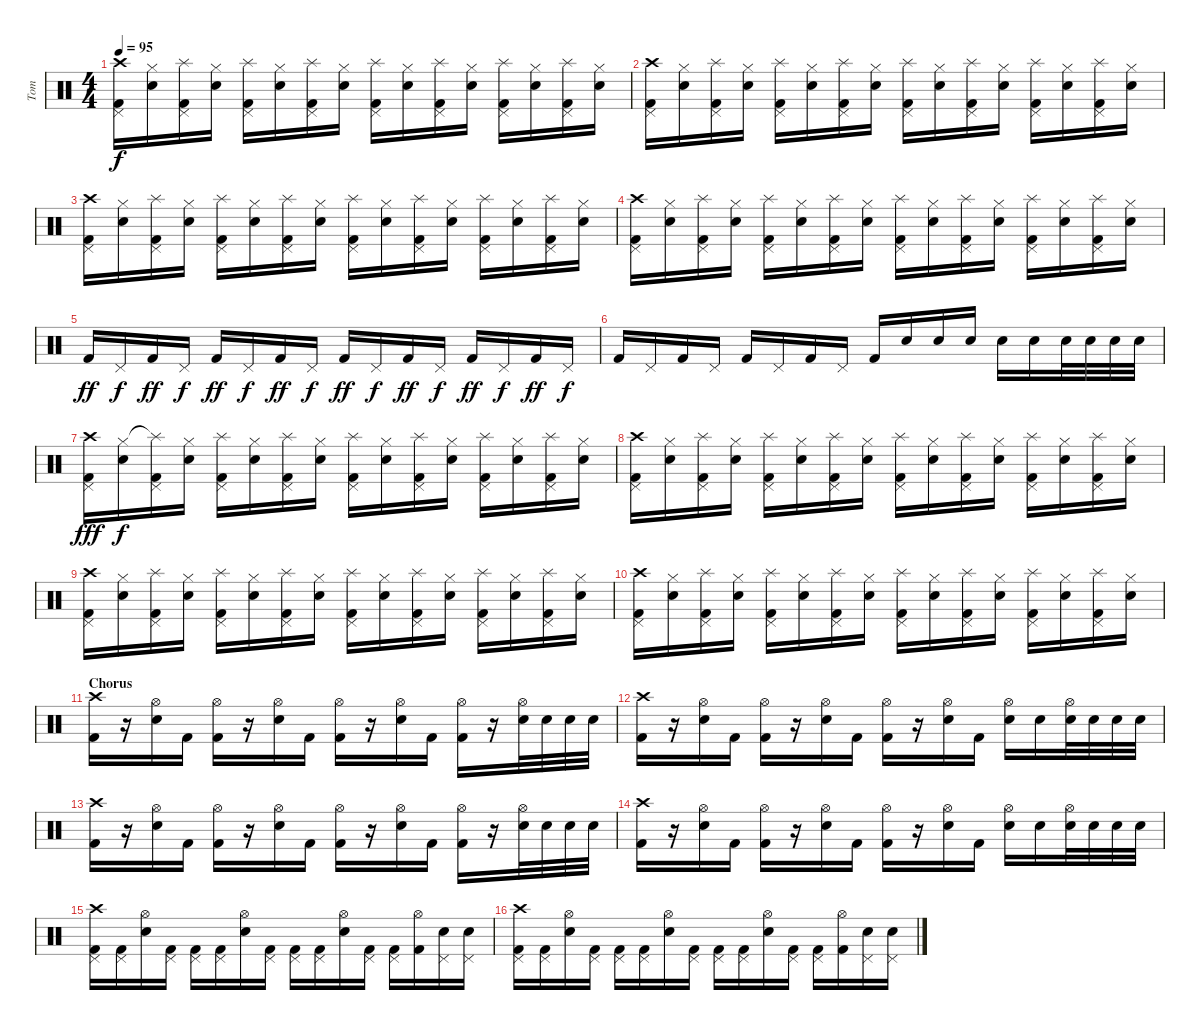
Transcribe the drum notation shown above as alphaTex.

\track ("Tom" "Tom") {instrument percussion}
\staff {score}
\articulation defaults
\ts (4 4)
\tempo 95
\clef neutral
\ks c
("Crash high (hit)" "Pedal Hi-Hat (hit)" "Kick (hit) 2").16{dy f} ("Hi-Hat (closed)" "Electric Snare (hit)").16 ("Splash (hit)" "Pedal Hi-Hat (hit)" "Kick (hit) 2").16 ("Hi-Hat (closed)" "Electric Snare (hit)").16 ("Splash (hit)" "Pedal Hi-Hat (hit)" "Kick (hit) 2").16 ("Hi-Hat (closed)" "Electric Snare (hit)").16 ("Splash (hit)" "Pedal Hi-Hat (hit)" "Kick (hit) 2").16 ("Hi-Hat (closed)" "Electric Snare (hit)").16 ("Splash (hit)" "Pedal Hi-Hat (hit)" "Kick (hit) 2").16 ("Hi-Hat (closed)" "Electric Snare (hit)").16 ("Splash (hit)" "Pedal Hi-Hat (hit)" "Kick (hit) 2").16 ("Hi-Hat (closed)" "Electric Snare (hit)").16 ("Splash (hit)" "Pedal Hi-Hat (hit)" "Kick (hit) 2").16 ("Hi-Hat (closed)" "Electric Snare (hit)").16 ("Splash (hit)" "Pedal Hi-Hat (hit)" "Kick (hit) 2").16 ("Hi-Hat (closed)" "Electric Snare (hit)").16 |
("Crash high (hit)" "Pedal Hi-Hat (hit)" "Kick (hit) 2").16 ("Hi-Hat (closed)" "Electric Snare (hit)").16 ("Splash (hit)" "Pedal Hi-Hat (hit)" "Kick (hit) 2").16 ("Hi-Hat (closed)" "Electric Snare (hit)").16 ("Splash (hit)" "Pedal Hi-Hat (hit)" "Kick (hit) 2").16 ("Hi-Hat (closed)" "Electric Snare (hit)").16 ("Splash (hit)" "Pedal Hi-Hat (hit)" "Kick (hit) 2").16 ("Hi-Hat (closed)" "Electric Snare (hit)").16 ("Splash (hit)" "Pedal Hi-Hat (hit)" "Kick (hit) 2").16 ("Hi-Hat (closed)" "Electric Snare (hit)").16 ("Splash (hit)" "Pedal Hi-Hat (hit)" "Kick (hit) 2").16 ("Hi-Hat (closed)" "Electric Snare (hit)").16 ("Splash (hit)" "Pedal Hi-Hat (hit)" "Kick (hit) 2").16 ("Hi-Hat (closed)" "Electric Snare (hit)").16 ("Splash (hit)" "Pedal Hi-Hat (hit)" "Kick (hit) 2").16 ("Hi-Hat (closed)" "Electric Snare (hit)").16 |
("Crash high (hit)" "Pedal Hi-Hat (hit)" "Kick (hit) 2").16 ("Hi-Hat (closed)" "Electric Snare (hit)").16 ("Splash (hit)" "Pedal Hi-Hat (hit)" "Kick (hit) 2").16 ("Hi-Hat (closed)" "Electric Snare (hit)").16 ("Splash (hit)" "Pedal Hi-Hat (hit)" "Kick (hit) 2").16 ("Hi-Hat (closed)" "Electric Snare (hit)").16 ("Splash (hit)" "Pedal Hi-Hat (hit)" "Kick (hit) 2").16 ("Hi-Hat (closed)" "Electric Snare (hit)").16 ("Splash (hit)" "Pedal Hi-Hat (hit)" "Kick (hit) 2").16 ("Hi-Hat (closed)" "Electric Snare (hit)").16 ("Splash (hit)" "Pedal Hi-Hat (hit)" "Kick (hit) 2").16 ("Hi-Hat (closed)" "Electric Snare (hit)").16 ("Splash (hit)" "Pedal Hi-Hat (hit)" "Kick (hit) 2").16 ("Hi-Hat (closed)" "Electric Snare (hit)").16 ("Splash (hit)" "Pedal Hi-Hat (hit)" "Kick (hit) 2").16 ("Hi-Hat (closed)" "Electric Snare (hit)").16 |
("Crash high (hit)" "Pedal Hi-Hat (hit)" "Kick (hit) 2").16 ("Hi-Hat (closed)" "Electric Snare (hit)").16 ("Splash (hit)" "Pedal Hi-Hat (hit)" "Kick (hit) 2").16 ("Hi-Hat (closed)" "Electric Snare (hit)").16 ("Splash (hit)" "Pedal Hi-Hat (hit)" "Kick (hit) 2").16 ("Hi-Hat (closed)" "Electric Snare (hit)").16 ("Splash (hit)" "Pedal Hi-Hat (hit)" "Kick (hit) 2").16 ("Hi-Hat (closed)" "Electric Snare (hit)").16 ("Splash (hit)" "Pedal Hi-Hat (hit)" "Kick (hit) 2").16 ("Hi-Hat (closed)" "Electric Snare (hit)").16 ("Splash (hit)" "Pedal Hi-Hat (hit)" "Kick (hit) 2").16 ("Hi-Hat (closed)" "Electric Snare (hit)").16 ("Splash (hit)" "Pedal Hi-Hat (hit)" "Kick (hit) 2").16 ("Hi-Hat (closed)" "Electric Snare (hit)").16 ("Splash (hit)" "Pedal Hi-Hat (hit)" "Kick (hit) 2").16 ("Hi-Hat (closed)" "Electric Snare (hit)").16 |
"Kick (hit) 2".16{dy ff} "Pedal Hi-Hat (hit)".16{dy f} "Kick (hit) 2".16{dy ff} "Pedal Hi-Hat (hit)".16{dy f} "Kick (hit) 2".16{dy ff} "Pedal Hi-Hat (hit)".16{dy f} "Kick (hit) 2".16{dy ff} "Pedal Hi-Hat (hit)".16{dy f} "Kick (hit) 2".16{dy ff} "Pedal Hi-Hat (hit)".16{dy f} "Kick (hit) 2".16{dy ff} "Pedal Hi-Hat (hit)".16{dy f} "Kick (hit) 2".16{dy ff} "Pedal Hi-Hat (hit)".16{dy f} "Kick (hit) 2".16{dy ff} "Pedal Hi-Hat (hit)".16{dy f} |
"Kick (hit) 2".16 "Pedal Hi-Hat (hit)".16 "Kick (hit) 2".16 "Pedal Hi-Hat (hit)".16 "Kick (hit) 2".16 "Pedal Hi-Hat (hit)".16 "Kick (hit) 2".16 "Pedal Hi-Hat (hit)".16 "Kick (hit) 2".16 "Electric Snare (hit)".16 "Electric Snare (hit)".16 "Electric Snare (hit)".16 "Electric Snare (hit)".16 "Electric Snare (hit)".16 "Electric Snare (hit)".32 "Electric Snare (hit)".32 "Electric Snare (hit)".32 "Electric Snare (hit)".32 |
("Crash high (hit)" "Pedal Hi-Hat (hit)" "Kick (hit) 2").16{dy fff} ("Hi-Hat (closed)" "Electric Snare (hit)").16{dy f} ("Splash (hit)"{t} "Pedal Hi-Hat (hit)" "Kick (hit) 2").16 ("Hi-Hat (closed)" "Electric Snare (hit)").16 ("Splash (hit)" "Pedal Hi-Hat (hit)" "Kick (hit) 2").16 ("Hi-Hat (closed)" "Electric Snare (hit)").16 ("Splash (hit)" "Pedal Hi-Hat (hit)" "Kick (hit) 2").16 ("Hi-Hat (closed)" "Electric Snare (hit)").16 ("Splash (hit)" "Pedal Hi-Hat (hit)" "Kick (hit) 2").16 ("Hi-Hat (closed)" "Electric Snare (hit)").16 ("Splash (hit)" "Pedal Hi-Hat (hit)" "Kick (hit) 2").16 ("Hi-Hat (closed)" "Electric Snare (hit)").16 ("Splash (hit)" "Pedal Hi-Hat (hit)" "Kick (hit) 2").16 ("Hi-Hat (closed)" "Electric Snare (hit)").16 ("Splash (hit)" "Pedal Hi-Hat (hit)" "Kick (hit) 2").16 ("Hi-Hat (closed)" "Electric Snare (hit)").16 |
("Crash high (hit)" "Pedal Hi-Hat (hit)" "Kick (hit) 2").16 ("Hi-Hat (closed)" "Electric Snare (hit)").16 ("Splash (hit)" "Pedal Hi-Hat (hit)" "Kick (hit) 2").16 ("Hi-Hat (closed)" "Electric Snare (hit)").16 ("Splash (hit)" "Pedal Hi-Hat (hit)" "Kick (hit) 2").16 ("Hi-Hat (closed)" "Electric Snare (hit)").16 ("Splash (hit)" "Pedal Hi-Hat (hit)" "Kick (hit) 2").16 ("Hi-Hat (closed)" "Electric Snare (hit)").16 ("Splash (hit)" "Pedal Hi-Hat (hit)" "Kick (hit) 2").16 ("Hi-Hat (closed)" "Electric Snare (hit)").16 ("Splash (hit)" "Pedal Hi-Hat (hit)" "Kick (hit) 2").16 ("Hi-Hat (closed)" "Electric Snare (hit)").16 ("Splash (hit)" "Pedal Hi-Hat (hit)" "Kick (hit) 2").16 ("Hi-Hat (closed)" "Electric Snare (hit)").16 ("Splash (hit)" "Pedal Hi-Hat (hit)" "Kick (hit) 2").16 ("Hi-Hat (closed)" "Electric Snare (hit)").16 |
("Crash high (hit)" "Pedal Hi-Hat (hit)" "Kick (hit) 2").16 ("Hi-Hat (closed)" "Electric Snare (hit)").16 ("Splash (hit)" "Pedal Hi-Hat (hit)" "Kick (hit) 2").16 ("Hi-Hat (closed)" "Electric Snare (hit)").16 ("Splash (hit)" "Pedal Hi-Hat (hit)" "Kick (hit) 2").16 ("Hi-Hat (closed)" "Electric Snare (hit)").16 ("Splash (hit)" "Pedal Hi-Hat (hit)" "Kick (hit) 2").16 ("Hi-Hat (closed)" "Electric Snare (hit)").16 ("Splash (hit)" "Pedal Hi-Hat (hit)" "Kick (hit) 2").16 ("Hi-Hat (closed)" "Electric Snare (hit)").16 ("Splash (hit)" "Pedal Hi-Hat (hit)" "Kick (hit) 2").16 ("Hi-Hat (closed)" "Electric Snare (hit)").16 ("Splash (hit)" "Pedal Hi-Hat (hit)" "Kick (hit) 2").16 ("Hi-Hat (closed)" "Electric Snare (hit)").16 ("Splash (hit)" "Pedal Hi-Hat (hit)" "Kick (hit) 2").16 ("Hi-Hat (closed)" "Electric Snare (hit)").16 |
("Crash high (hit)" "Pedal Hi-Hat (hit)" "Kick (hit) 2").16 ("Hi-Hat (closed)" "Electric Snare (hit)").16 ("Splash (hit)" "Pedal Hi-Hat (hit)" "Kick (hit) 2").16 ("Hi-Hat (closed)" "Electric Snare (hit)").16 ("Splash (hit)" "Pedal Hi-Hat (hit)" "Kick (hit) 2").16 ("Hi-Hat (closed)" "Electric Snare (hit)").16 ("Splash (hit)" "Pedal Hi-Hat (hit)" "Kick (hit) 2").16 ("Hi-Hat (closed)" "Electric Snare (hit)").16 ("Splash (hit)" "Pedal Hi-Hat (hit)" "Kick (hit) 2").16 ("Hi-Hat (closed)" "Electric Snare (hit)").16 ("Splash (hit)" "Pedal Hi-Hat (hit)" "Kick (hit) 2").16 ("Hi-Hat (closed)" "Electric Snare (hit)").16 ("Splash (hit)" "Pedal Hi-Hat (hit)" "Kick (hit) 2").16 ("Hi-Hat (closed)" "Electric Snare (hit)").16 ("Splash (hit)" "Pedal Hi-Hat (hit)" "Kick (hit) 2").16 ("Hi-Hat (closed)" "Electric Snare (hit)").16 |
\section ("" "Chorus")
("Crash high (hit)" "Kick (hit) 2").16 r.16 ("Hi-Hat (open)" "Electric Snare (hit)").16 "Kick (hit) 2".16 ("Hi-Hat (open)" "Kick (hit) 2").16 r.16 ("Hi-Hat (open)" "Electric Snare (hit)").16 "Kick (hit) 2".16 ("Hi-Hat (open)" "Kick (hit) 2").16 r.16 ("Hi-Hat (open)" "Electric Snare (hit)").16 "Kick (hit) 2".16 ("Hi-Hat (open)" "Kick (hit) 2").16 r.16 ("Hi-Hat (open)" "Electric Snare (hit)").32 "Electric Snare (hit)".32 "Electric Snare (hit)".32 "Electric Snare (hit)".32 |
("Crash high (hit)" "Kick (hit) 2").16 r.16 ("Hi-Hat (open)" "Electric Snare (hit)").16 "Kick (hit) 2".16 ("Hi-Hat (open)" "Kick (hit) 2").16 r.16 ("Hi-Hat (open)" "Electric Snare (hit)").16 "Kick (hit) 2".16 ("Hi-Hat (open)" "Kick (hit) 2").16 r.16 ("Hi-Hat (open)" "Electric Snare (hit)").16 "Kick (hit) 2".16 ("Hi-Hat (open)" "Electric Snare (hit)").16 "Electric Snare (hit)".16 ("Hi-Hat (open)" "Electric Snare (hit)").32 "Electric Snare (hit)".32 "Electric Snare (hit)".32 "Electric Snare (hit)".32 |
("Crash high (hit)" "Kick (hit) 2").16 r.16 ("Hi-Hat (open)" "Electric Snare (hit)").16 "Kick (hit) 2".16 ("Hi-Hat (open)" "Kick (hit) 2").16 r.16 ("Hi-Hat (open)" "Electric Snare (hit)").16 "Kick (hit) 2".16 ("Hi-Hat (open)" "Kick (hit) 2").16 r.16 ("Hi-Hat (open)" "Electric Snare (hit)").16 "Kick (hit) 2".16 ("Hi-Hat (open)" "Kick (hit) 2").16 r.16 ("Hi-Hat (open)" "Electric Snare (hit)").32 "Electric Snare (hit)".32 "Electric Snare (hit)".32 "Electric Snare (hit)".32 |
("Crash high (hit)" "Kick (hit) 2").16 r.16 ("Hi-Hat (open)" "Electric Snare (hit)").16 "Kick (hit) 2".16 ("Hi-Hat (open)" "Kick (hit) 2").16 r.16 ("Hi-Hat (open)" "Electric Snare (hit)").16 "Kick (hit) 2".16 ("Hi-Hat (open)" "Kick (hit) 2").16 r.16 ("Hi-Hat (open)" "Electric Snare (hit)").16 "Kick (hit) 2".16 ("Hi-Hat (open)" "Electric Snare (hit)").16 "Electric Snare (hit)".16 ("Hi-Hat (open)" "Electric Snare (hit)").32 "Electric Snare (hit)".32 "Electric Snare (hit)".32 "Electric Snare (hit)".32 |
("Crash high (hit)" "Pedal Hi-Hat (hit)" "Kick (hit) 2").16 ("Pedal Hi-Hat (hit)" "Kick (hit) 2").16 ("Hi-Hat (open)" "Electric Snare (hit)").16 ("Pedal Hi-Hat (hit)" "Kick (hit) 2").16 ("Pedal Hi-Hat (hit)" "Kick (hit) 2").16 ("Pedal Hi-Hat (hit)" "Kick (hit) 2").16 ("Hi-Hat (open)" "Electric Snare (hit)").16 ("Pedal Hi-Hat (hit)" "Kick (hit) 2").16 ("Pedal Hi-Hat (hit)" "Kick (hit) 2").16 ("Pedal Hi-Hat (hit)" "Kick (hit) 2").16 ("Hi-Hat (open)" "Electric Snare (hit)").16 ("Pedal Hi-Hat (hit)" "Kick (hit) 2").16 ("Pedal Hi-Hat (hit)" "Kick (hit) 2").16 ("Hi-Hat (open)" "Kick (hit) 2").16 ("Pedal Hi-Hat (hit)" "Electric Snare (hit)").16 ("Pedal Hi-Hat (hit)" "Electric Snare (hit)").16 |
("Crash high (hit)" "Pedal Hi-Hat (hit)" "Kick (hit) 2").16 ("Pedal Hi-Hat (hit)" "Kick (hit) 2").16 ("Hi-Hat (open)" "Electric Snare (hit)").16 ("Pedal Hi-Hat (hit)" "Kick (hit) 2").16 ("Pedal Hi-Hat (hit)" "Kick (hit) 2").16 ("Pedal Hi-Hat (hit)" "Kick (hit) 2").16 ("Hi-Hat (open)" "Electric Snare (hit)").16 ("Pedal Hi-Hat (hit)" "Kick (hit) 2").16 ("Pedal Hi-Hat (hit)" "Kick (hit) 2").16 ("Pedal Hi-Hat (hit)" "Kick (hit) 2").16 ("Hi-Hat (open)" "Electric Snare (hit)").16 ("Pedal Hi-Hat (hit)" "Kick (hit) 2").16 ("Pedal Hi-Hat (hit)" "Kick (hit) 2").16 ("Hi-Hat (open)" "Kick (hit) 2").16 ("Pedal Hi-Hat (hit)" "Electric Snare (hit)").16 ("Pedal Hi-Hat (hit)" "Electric Snare (hit)").16
